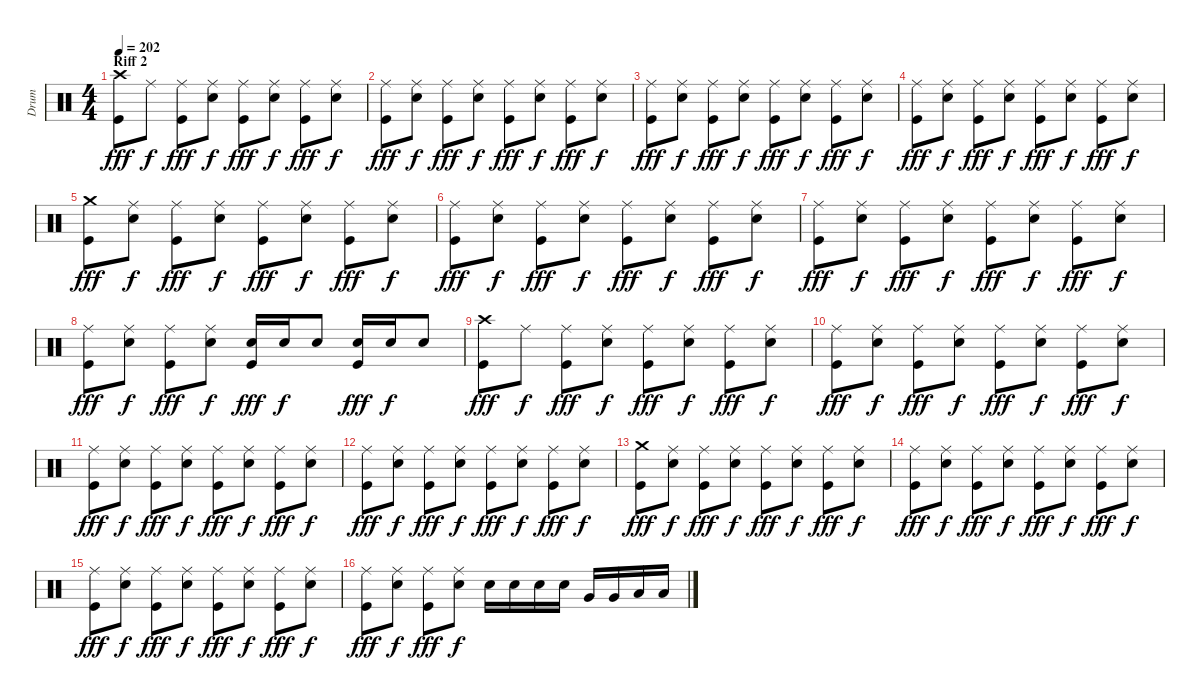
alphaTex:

\track ("Drum" "Drum") {instrument percussion}
\staff {score}
\articulation defaults
\ts (4 4)
\section ("" "Riff 2")
\tempo 202
\clef neutral
\ks c
("Crash high (hit)" "Kick (hit)").8{dy fff} "Ride (middle)".8{dy f} ("Ride (middle)" "Kick (hit)").8{dy fff} ("Ride (middle)" "Electric Snare (hit)").8{dy f} ("Ride (middle)" "Kick (hit)").8{dy fff} ("Ride (middle)" "Electric Snare (hit)").8{dy f} ("Ride (middle)" "Kick (hit)").8{dy fff} ("Ride (middle)" "Electric Snare (hit)").8{dy f} |
("Ride (middle)" "Kick (hit)").8{dy fff} ("Ride (middle)" "Electric Snare (hit)").8{dy f} ("Ride (middle)" "Kick (hit)").8{dy fff} ("Ride (middle)" "Electric Snare (hit)").8{dy f} ("Ride (middle)" "Kick (hit)").8{dy fff} ("Ride (middle)" "Electric Snare (hit)").8{dy f} ("Ride (middle)" "Kick (hit)").8{dy fff} ("Ride (middle)" "Electric Snare (hit)").8{dy f} |
("Ride (middle)" "Kick (hit)").8{dy fff} ("Ride (middle)" "Electric Snare (hit)").8{dy f} ("Ride (middle)" "Kick (hit)").8{dy fff} ("Ride (middle)" "Electric Snare (hit)").8{dy f} ("Ride (middle)" "Kick (hit)").8{dy fff} ("Ride (middle)" "Electric Snare (hit)").8{dy f} ("Ride (middle)" "Kick (hit)").8{dy fff} ("Ride (middle)" "Electric Snare (hit)").8{dy f} |
("Ride (middle)" "Kick (hit)").8{dy fff} ("Ride (middle)" "Electric Snare (hit)").8{dy f} ("Ride (middle)" "Kick (hit)").8{dy fff} ("Ride (middle)" "Electric Snare (hit)").8{dy f} ("Ride (middle)" "Kick (hit)").8{dy fff} ("Ride (middle)" "Electric Snare (hit)").8{dy f} ("Ride (middle)" "Kick (hit)").8{dy fff} ("Ride (middle)" "Electric Snare (hit)").8{dy f} |
("Crash medium (hit)" "Kick (hit)").8{dy fff} ("Ride (middle)" "Electric Snare (hit)").8{dy f} ("Ride (middle)" "Kick (hit)").8{dy fff} ("Ride (middle)" "Electric Snare (hit)").8{dy f} ("Ride (middle)" "Kick (hit)").8{dy fff} ("Ride (middle)" "Electric Snare (hit)").8{dy f} ("Ride (middle)" "Kick (hit)").8{dy fff} ("Ride (middle)" "Electric Snare (hit)").8{dy f} |
("Ride (middle)" "Kick (hit)").8{dy fff} ("Ride (middle)" "Electric Snare (hit)").8{dy f} ("Ride (middle)" "Kick (hit)").8{dy fff} ("Ride (middle)" "Electric Snare (hit)").8{dy f} ("Ride (middle)" "Kick (hit)").8{dy fff} ("Ride (middle)" "Electric Snare (hit)").8{dy f} ("Ride (middle)" "Kick (hit)").8{dy fff} ("Ride (middle)" "Electric Snare (hit)").8{dy f} |
("Ride (middle)" "Kick (hit)").8{dy fff} ("Ride (middle)" "Electric Snare (hit)").8{dy f} ("Ride (middle)" "Kick (hit)").8{dy fff} ("Ride (middle)" "Electric Snare (hit)").8{dy f} ("Ride (middle)" "Kick (hit)").8{dy fff} ("Ride (middle)" "Electric Snare (hit)").8{dy f} ("Ride (middle)" "Kick (hit)").8{dy fff} ("Ride (middle)" "Electric Snare (hit)").8{dy f} |
("Ride (middle)" "Kick (hit)").8{dy fff} ("Ride (middle)" "Electric Snare (hit)").8{dy f} ("Ride (middle)" "Kick (hit)").8{dy fff} ("Ride (middle)" "Electric Snare (hit)").8{dy f} ("Electric Snare (hit)" "Kick (hit)").16{dy fff} "Electric Snare (hit)".16{dy f} "Electric Snare (hit)".8 ("Electric Snare (hit)" "Kick (hit)").16{dy fff} "Electric Snare (hit)".16{dy f} "Electric Snare (hit)".8 |
("Crash high (hit)" "Kick (hit)").8{dy fff} "Ride (middle)".8{dy f} ("Ride (middle)" "Kick (hit)").8{dy fff} ("Ride (middle)" "Electric Snare (hit)").8{dy f} ("Ride (middle)" "Kick (hit)").8{dy fff} ("Ride (middle)" "Electric Snare (hit)").8{dy f} ("Ride (middle)" "Kick (hit)").8{dy fff} ("Ride (middle)" "Electric Snare (hit)").8{dy f} |
("Ride (middle)" "Kick (hit)").8{dy fff} ("Ride (middle)" "Electric Snare (hit)").8{dy f} ("Ride (middle)" "Kick (hit)").8{dy fff} ("Ride (middle)" "Electric Snare (hit)").8{dy f} ("Ride (middle)" "Kick (hit)").8{dy fff} ("Ride (middle)" "Electric Snare (hit)").8{dy f} ("Ride (middle)" "Kick (hit)").8{dy fff} ("Ride (middle)" "Electric Snare (hit)").8{dy f} |
("Ride (middle)" "Kick (hit)").8{dy fff} ("Ride (middle)" "Electric Snare (hit)").8{dy f} ("Ride (middle)" "Kick (hit)").8{dy fff} ("Ride (middle)" "Electric Snare (hit)").8{dy f} ("Ride (middle)" "Kick (hit)").8{dy fff} ("Ride (middle)" "Electric Snare (hit)").8{dy f} ("Ride (middle)" "Kick (hit)").8{dy fff} ("Ride (middle)" "Electric Snare (hit)").8{dy f} |
("Ride (middle)" "Kick (hit)").8{dy fff} ("Ride (middle)" "Electric Snare (hit)").8{dy f} ("Ride (middle)" "Kick (hit)").8{dy fff} ("Ride (middle)" "Electric Snare (hit)").8{dy f} ("Ride (middle)" "Kick (hit)").8{dy fff} ("Ride (middle)" "Electric Snare (hit)").8{dy f} ("Ride (middle)" "Kick (hit)").8{dy fff} ("Ride (middle)" "Electric Snare (hit)").8{dy f} |
("Crash medium (hit)" "Kick (hit)").8{dy fff} ("Ride (middle)" "Electric Snare (hit)").8{dy f} ("Ride (middle)" "Kick (hit)").8{dy fff} ("Ride (middle)" "Electric Snare (hit)").8{dy f} ("Ride (middle)" "Kick (hit)").8{dy fff} ("Ride (middle)" "Electric Snare (hit)").8{dy f} ("Ride (middle)" "Kick (hit)").8{dy fff} ("Ride (middle)" "Electric Snare (hit)").8{dy f} |
("Ride (middle)" "Kick (hit)").8{dy fff} ("Ride (middle)" "Electric Snare (hit)").8{dy f} ("Ride (middle)" "Kick (hit)").8{dy fff} ("Ride (middle)" "Electric Snare (hit)").8{dy f} ("Ride (middle)" "Kick (hit)").8{dy fff} ("Ride (middle)" "Electric Snare (hit)").8{dy f} ("Ride (middle)" "Kick (hit)").8{dy fff} ("Ride (middle)" "Electric Snare (hit)").8{dy f} |
("Ride (middle)" "Kick (hit)").8{dy fff} ("Ride (middle)" "Electric Snare (hit)").8{dy f} ("Ride (middle)" "Kick (hit)").8{dy fff} ("Ride (middle)" "Electric Snare (hit)").8{dy f} ("Ride (middle)" "Kick (hit)").8{dy fff} ("Ride (middle)" "Electric Snare (hit)").8{dy f} ("Ride (middle)" "Kick (hit)").8{dy fff} ("Ride (middle)" "Electric Snare (hit)").8{dy f} |
("Ride (middle)" "Kick (hit)").8{dy fff} ("Ride (middle)" "Electric Snare (hit)").8{dy f} ("Ride (middle)" "Kick (hit)").8{dy fff} ("Ride (middle)" "Electric Snare (hit)").8{dy f} "Electric Snare (hit)".16 "Electric Snare (hit)".16 "Electric Snare (hit)".16 "Electric Snare (hit)".16 "Very Low Tom (hit)".16 "Very Low Tom (hit)".16 "Low Floor Tom (hit)".16 "Low Floor Tom (hit)".16
